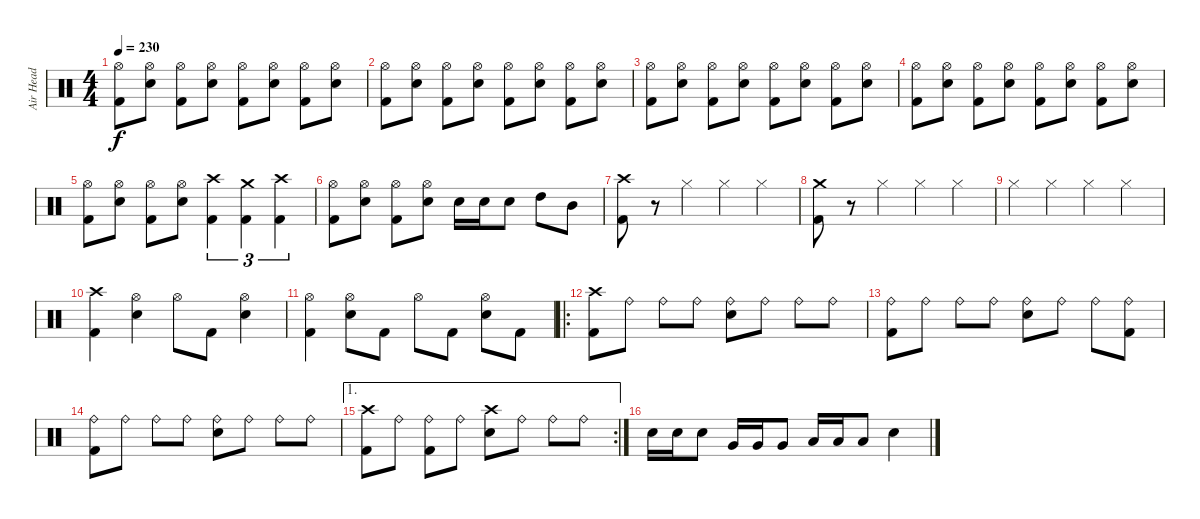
\track ("Air Head" "Air Head") {instrument percussion}
\staff {score}
\articulation defaults
\ts (4 4)
\tempo 230
\clef neutral
\ks c
("Hi-Hat (open)" "Kick (hit) 2").8{dy f} ("Hi-Hat (open)" "Snare (hit) 2").8 ("Hi-Hat (open)" "Kick (hit) 2").8 ("Hi-Hat (open)" "Snare (hit) 2").8 ("Hi-Hat (open)" "Kick (hit) 2").8 ("Hi-Hat (open)" "Snare (hit) 2").8 ("Hi-Hat (open)" "Kick (hit) 2").8 ("Hi-Hat (open)" "Snare (hit) 2").8 |
("Hi-Hat (open)" "Kick (hit) 2").8 ("Hi-Hat (open)" "Snare (hit) 2").8 ("Hi-Hat (open)" "Kick (hit) 2").8 ("Hi-Hat (open)" "Snare (hit) 2").8 ("Hi-Hat (open)" "Kick (hit) 2").8 ("Hi-Hat (open)" "Snare (hit) 2").8 ("Hi-Hat (open)" "Kick (hit) 2").8 ("Hi-Hat (open)" "Snare (hit) 2").8 |
("Hi-Hat (open)" "Kick (hit) 2").8 ("Hi-Hat (open)" "Snare (hit) 2").8 ("Hi-Hat (open)" "Kick (hit) 2").8 ("Hi-Hat (open)" "Snare (hit) 2").8 ("Hi-Hat (open)" "Kick (hit) 2").8 ("Hi-Hat (open)" "Snare (hit) 2").8 ("Hi-Hat (open)" "Kick (hit) 2").8 ("Hi-Hat (open)" "Snare (hit) 2").8 |
("Hi-Hat (open)" "Kick (hit) 2").8 ("Hi-Hat (open)" "Snare (hit) 2").8 ("Hi-Hat (open)" "Kick (hit) 2").8 ("Hi-Hat (open)" "Snare (hit) 2").8 ("Hi-Hat (open)" "Kick (hit) 2").8 ("Hi-Hat (open)" "Snare (hit) 2").8 ("Hi-Hat (open)" "Kick (hit) 2").8 ("Hi-Hat (open)" "Snare (hit) 2").8 |
("Hi-Hat (open)" "Kick (hit) 2").8 ("Hi-Hat (open)" "Snare (hit) 2").8 ("Hi-Hat (open)" "Kick (hit) 2").8 ("Hi-Hat (open)" "Snare (hit) 2").8 ("Crash high (hit)" "Kick (hit) 2").4{tu (3 2)} ("Crash medium (hit)" "Kick (hit) 2").4{tu (3 2)} ("Crash high (hit)" "Kick (hit) 2").4{tu (3 2)} |
("Hi-Hat (open)" "Kick (hit) 2").8 ("Hi-Hat (open)" "Snare (hit) 2").8 ("Hi-Hat (open)" "Kick (hit) 2").8 ("Hi-Hat (open)" "Snare (hit) 2").8 "Snare (hit) 2".16 "Snare (hit) 2".16 "Snare (hit) 2".8 "High Tom (hit)".8 "Mid Tom (hit)".8 |
("Crash high (hit)" "Kick (hit) 2").8 r.8 "Hi-Hat (closed)".4 "Hi-Hat (closed)".4 "Hi-Hat (closed)".4 |
("Crash medium (hit)" "Kick (hit) 2").8 r.8 "Hi-Hat (closed)".4 "Hi-Hat (closed)".4 "Hi-Hat (closed)".4 |
"Hi-Hat (closed)".4 "Hi-Hat (closed)".4 "Hi-Hat (closed)".4 "Hi-Hat (closed)".4 |
("Crash high (hit)" "Kick (hit) 2").4 ("Hi-Hat (open)" "Snare (hit) 2").4 "Hi-Hat (open)".8 "Kick (hit) 2".8 ("Hi-Hat (open)" "Snare (hit) 2").4 |
("Hi-Hat (open)" "Kick (hit) 2").4 ("Hi-Hat (open)" "Snare (hit) 2").8 "Kick (hit) 2".8 "Hi-Hat (open)".8 "Kick (hit) 2".8 ("Hi-Hat (open)" "Snare (hit) 2").8 "Kick (hit) 2".8 |
\ro
("Crash high (hit)" "Kick (hit) 2").8 "Ride (bell)".8 "Ride (bell)".8 "Ride (bell)".8 ("Ride (bell)" "Snare (hit) 2").8 "Ride (bell)".8 "Ride (bell)".8 "Ride (bell)".8 |
("Ride (bell)" "Kick (hit) 2").8 "Ride (bell)".8 "Ride (bell)".8 "Ride (bell)".8 ("Ride (bell)" "Snare (hit) 2").8 "Ride (bell)".8 "Ride (bell)".8 ("Ride (bell)" "Kick (hit) 2").8 |
("Ride (bell)" "Kick (hit) 2").8 "Ride (bell)".8 "Ride (bell)".8 "Ride (bell)".8 ("Ride (bell)" "Snare (hit) 2").8 "Ride (bell)".8 "Ride (bell)".8 "Ride (bell)".8 |
\ae 1
\rc 2
("Crash high (hit)" "Kick (hit) 2").8 "Ride (bell)".8 ("Ride (bell)" "Kick (hit) 2").8 "Ride (bell)".8 ("Crash high (hit)" "Snare (hit) 2").8 "Ride (bell)".8 "Ride (bell)".8 "Ride (bell)".8 |
"Snare (hit) 2".16 "Snare (hit) 2".16 "Snare (hit) 2".8 "Very Low Tom (hit)".16 "Very Low Tom (hit)".16 "Very Low Tom (hit)".8 "Low Tom (hit)".16 "Low Tom (hit)".16 "Low Tom (hit)".8 "Snare (hit) 2".4
